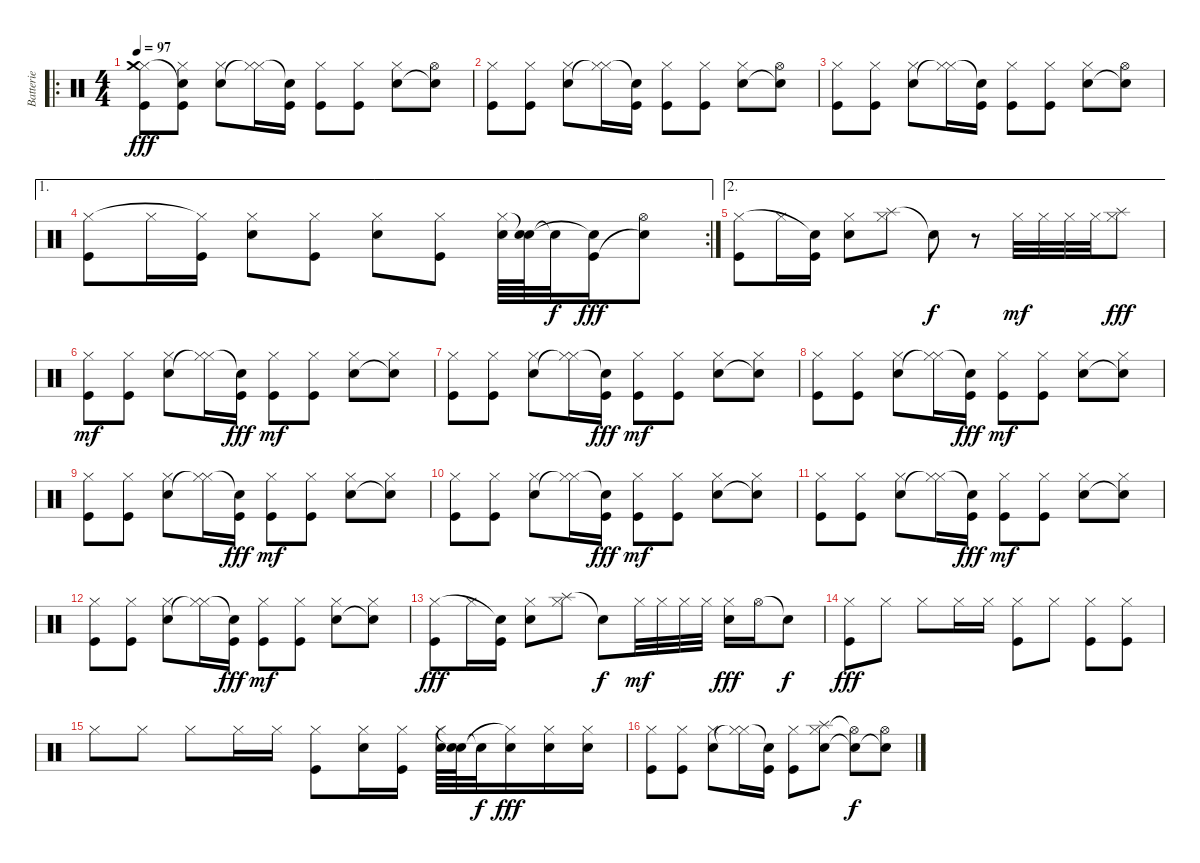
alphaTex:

\track ("Batterie" "Batterie") {instrument percussion}
\staff {score}
\articulation defaults
\ro
\ts (4 4)
\tempo 97
\clef neutral
\ks c
("Kick (hit)" "Hi-Hat (closed)" "Crash medium (hit)").8{dy fff} ("Kick (hit)" "Hi-Hat (closed)" "Snare (hit)"{t}).8 ("Snare (hit) 2" "Hi-Hat (closed)").8 ("Hi-Hat (closed)"{t} "Hi-Hat (closed)").16 ("Kick (hit)" "Snare (hit)"{t}).16 ("Kick (hit)" "Hi-Hat (closed)").8 ("Kick (hit)" "Hi-Hat (closed)").8 ("Snare (hit) 2" "Hi-Hat (closed)").8 ("Snare (hit)"{t} "Hi-Hat (open)").8 |
("Kick (hit)" "Hi-Hat (closed)").8 ("Kick (hit)" "Hi-Hat (closed)").8 ("Snare (hit) 2" "Hi-Hat (closed)").8 ("Hi-Hat (closed)"{t} "Hi-Hat (closed)").16 ("Kick (hit)" "Snare (hit)"{t}).16 ("Kick (hit)" "Hi-Hat (closed)").8 ("Kick (hit)" "Hi-Hat (closed)").8 ("Snare (hit) 2" "Hi-Hat (closed)").8 ("Snare (hit)"{t} "Hi-Hat (open)").8 |
("Kick (hit)" "Hi-Hat (closed)").8 ("Kick (hit)" "Hi-Hat (closed)").8 ("Snare (hit) 2" "Hi-Hat (closed)").8 ("Hi-Hat (closed)"{t} "Hi-Hat (closed)").16 ("Kick (hit)" "Snare (hit)"{t}).16 ("Kick (hit)" "Hi-Hat (closed)").8 ("Kick (hit)" "Hi-Hat (closed)").8 ("Snare (hit) 2" "Hi-Hat (closed)").8 ("Snare (hit)"{t} "Hi-Hat (open)").8 |
\ae 1
\rc 2
("Kick (hit)" "Hi-Hat (closed)").8 "Hi-Hat (closed)".16 ("Kick (hit)" "Hi-Hat (closed)"{t}).16 ("Snare (hit) 2" "Hi-Hat (closed)").8 ("Kick (hit)" "Hi-Hat (closed)").8 ("Snare (hit) 2" "Hi-Hat (closed)").8 ("Kick (hit)" "Hi-Hat (closed)").8 ("Snare (hit) 2" "Hi-Hat (closed)").64 ("Snare (hit) 2" "Snare (hit)"{t}).64 "Snare (hit)"{t}.32{dy f} ("Kick (hit)" "Snare (hit)"{t}).16{dy fff} ("Snare (hit)"{t} "Hi-Hat (open)").8 |
\ae 2
("Kick (hit)" "Hi-Hat (closed)").8 "Hi-Hat (closed)".16 ("Kick (hit)" "Snare (hit)"{t}).16 ("Snare (hit) 2" "Hi-Hat (closed)").8 ("Splash (hit)" "Hi-Hat (closed)").8 "Snare (hit)"{t}.8{dy f} r.8 "Hi-Hat (closed)".32{dy mf} "Hi-Hat (closed)".32 "Hi-Hat (closed)".32 "Hi-Hat (closed)".32 ("Splash (hit)" "Hi-Hat (closed)").8{dy fff} |
("Kick (hit)" "Hi-Hat (closed)").8{dy mf} ("Kick (hit)" "Hi-Hat (closed)").8 ("Snare (hit) 2" "Hi-Hat (closed)").8 ("Hi-Hat (closed)"{t} "Hi-Hat (closed)").16 ("Kick (hit)" "Snare (hit)"{t}).16{dy fff} ("Kick (hit)" "Hi-Hat (closed)").8{dy mf} ("Kick (hit)" "Hi-Hat (closed)").8 ("Snare (hit) 2" "Hi-Hat (closed)").8 ("Snare (hit)"{t} "Hi-Hat (closed)").8 |
("Kick (hit)" "Hi-Hat (closed)").8 ("Kick (hit)" "Hi-Hat (closed)").8 ("Snare (hit) 2" "Hi-Hat (closed)").8 ("Hi-Hat (closed)"{t} "Hi-Hat (closed)").16 ("Kick (hit)" "Snare (hit)"{t}).16{dy fff} ("Kick (hit)" "Hi-Hat (closed)").8{dy mf} ("Kick (hit)" "Hi-Hat (closed)").8 ("Snare (hit) 2" "Hi-Hat (closed)").8 ("Snare (hit)"{t} "Hi-Hat (closed)").8 |
("Kick (hit)" "Hi-Hat (closed)").8 ("Kick (hit)" "Hi-Hat (closed)").8 ("Snare (hit) 2" "Hi-Hat (closed)").8 ("Hi-Hat (closed)"{t} "Hi-Hat (closed)").16 ("Kick (hit)" "Snare (hit)"{t}).16{dy fff} ("Kick (hit)" "Hi-Hat (closed)").8{dy mf} ("Kick (hit)" "Hi-Hat (closed)").8 ("Snare (hit) 2" "Hi-Hat (closed)").8 ("Snare (hit)"{t} "Hi-Hat (closed)").8 |
("Kick (hit)" "Hi-Hat (closed)").8 ("Kick (hit)" "Hi-Hat (closed)").8 ("Snare (hit) 2" "Hi-Hat (closed)").8 ("Hi-Hat (closed)"{t} "Hi-Hat (closed)").16 ("Kick (hit)" "Snare (hit)"{t}).16{dy fff} ("Kick (hit)" "Hi-Hat (closed)").8{dy mf} ("Kick (hit)" "Hi-Hat (closed)").8 ("Snare (hit) 2" "Hi-Hat (closed)").8 ("Snare (hit)"{t} "Hi-Hat (closed)").8 |
("Kick (hit)" "Hi-Hat (closed)").8 ("Kick (hit)" "Hi-Hat (closed)").8 ("Snare (hit) 2" "Hi-Hat (closed)").8 ("Hi-Hat (closed)"{t} "Hi-Hat (closed)").16 ("Kick (hit)" "Snare (hit)"{t}).16{dy fff} ("Kick (hit)" "Hi-Hat (closed)").8{dy mf} ("Kick (hit)" "Hi-Hat (closed)").8 ("Snare (hit) 2" "Hi-Hat (closed)").8 ("Snare (hit)"{t} "Hi-Hat (closed)").8 |
("Kick (hit)" "Hi-Hat (closed)").8 ("Kick (hit)" "Hi-Hat (closed)").8 ("Snare (hit) 2" "Hi-Hat (closed)").8 ("Hi-Hat (closed)"{t} "Hi-Hat (closed)").16 ("Kick (hit)" "Snare (hit)"{t}).16{dy fff} ("Kick (hit)" "Hi-Hat (closed)").8{dy mf} ("Kick (hit)" "Hi-Hat (closed)").8 ("Snare (hit) 2" "Hi-Hat (closed)").8 ("Snare (hit)"{t} "Hi-Hat (closed)").8 |
("Kick (hit)" "Hi-Hat (closed)").8 ("Kick (hit)" "Hi-Hat (closed)").8 ("Snare (hit) 2" "Hi-Hat (closed)").8 ("Hi-Hat (closed)"{t} "Hi-Hat (closed)").16 ("Kick (hit)" "Snare (hit)"{t}).16{dy fff} ("Kick (hit)" "Hi-Hat (closed)").8{dy mf} ("Kick (hit)" "Hi-Hat (closed)").8 ("Snare (hit) 2" "Hi-Hat (closed)").8 ("Snare (hit)"{t} "Hi-Hat (closed)").8 |
("Kick (hit)" "Hi-Hat (closed)").8{dy fff} "Hi-Hat (closed)".16 ("Kick (hit)" "Snare (hit)"{t}).16 ("Snare (hit) 2" "Hi-Hat (closed)").8 ("Splash (hit)" "Hi-Hat (closed)").8 "Snare (hit)"{t}.8{dy f} "Hi-Hat (closed)".32{dy mf} "Hi-Hat (closed)".32 "Hi-Hat (closed)".32 "Hi-Hat (closed)".32 ("Snare (hit) 2" "Hi-Hat (closed)").16{dy fff} "Hi-Hat (open)".16 "Snare (hit)"{t}.8{dy f} |
("Kick (hit)" "Hi-Hat (closed)").8{dy fff} "Hi-Hat (closed)".8 "Hi-Hat (closed)".8 "Hi-Hat (closed)".16 "Hi-Hat (closed)".16 ("Kick (hit)" "Hi-Hat (closed)").8 "Hi-Hat (closed)".8 ("Kick (hit)" "Hi-Hat (closed)").8 ("Kick (hit)" "Hi-Hat (closed)").8 |
"Hi-Hat (closed)".8 "Hi-Hat (closed)".8 "Hi-Hat (closed)".8 "Hi-Hat (closed)".16 "Hi-Hat (closed)".16 ("Kick (hit)" "Hi-Hat (closed)").8 ("Snare (hit) 2" "Hi-Hat (closed)").16 ("Kick (hit)" "Hi-Hat (closed)").16 ("Snare (hit) 2" "Hi-Hat (closed)").64 ("Snare (hit) 2" "Snare (hit)"{t}).64 "Snare (hit)"{t}.32{dy f} ("Snare (hit) 2" "Hi-Hat (closed)"{t}).16{dy fff} ("Snare (hit) 2" "Hi-Hat (closed)").16 ("Snare (hit) 2" "Hi-Hat (closed)").16 |
("Kick (hit)" "Hi-Hat (closed)").8 ("Kick (hit)" "Hi-Hat (closed)").8 ("Snare (hit) 2" "Hi-Hat (closed)").8 ("Hi-Hat (closed)"{t} "Hi-Hat (closed)").16 ("Kick (hit)" "Snare (hit)"{t}).16 ("Kick (hit)" "Hi-Hat (closed)").8 ("Snare (hit) 2" "Hi-Hat (closed)" "Splash (hit)").8 ("Snare (hit) 2"{t} "Hi-Hat (open)"{t}).8{dy f} ("Snare (hit)"{t} "Hi-Hat (open)").8
